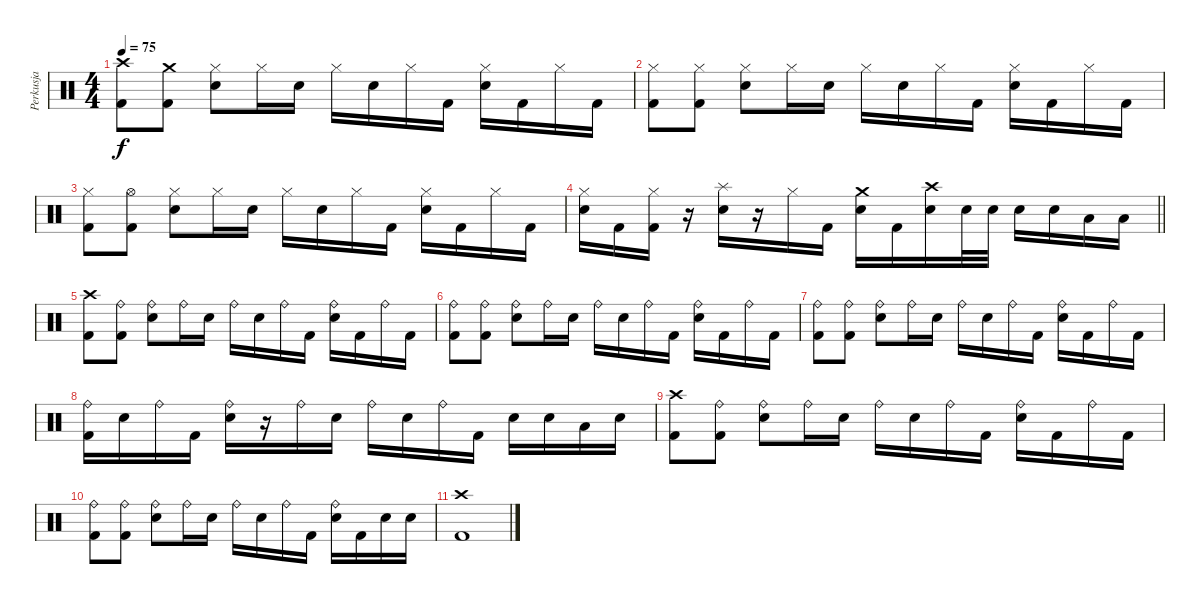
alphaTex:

\track ("Perkusja" "Perkusja") {instrument percussion}
\staff {score}
\articulation defaults
\ts (4 4)
\tempo 75
\clef neutral
\ks c
("Crash high (hit)" "Kick (hit) 2").8{dy f} ("Crash medium (hit)" "Kick (hit) 2").8 ("Hi-Hat (closed)" "Snare (hit) 2").8 "Hi-Hat (closed)".16 "Snare (hit) 2".16 "Hi-Hat (closed)".16 "Snare (hit) 2".16 "Hi-Hat (closed)".16 "Kick (hit) 2".16 ("Hi-Hat (closed)" "Snare (hit) 2").16 "Kick (hit) 2".16 "Hi-Hat (closed)".16 "Kick (hit) 2".16 |
("Hi-Hat (closed)" "Kick (hit) 2").8 ("Hi-Hat (closed)" "Kick (hit) 2").8 ("Hi-Hat (closed)" "Snare (hit) 2").8 "Hi-Hat (closed)".16 "Snare (hit) 2".16 "Hi-Hat (closed)".16 "Snare (hit) 2".16 "Hi-Hat (closed)".16 "Kick (hit) 2".16 ("Hi-Hat (closed)" "Snare (hit) 2").16 "Kick (hit) 2".16 "Hi-Hat (closed)".16 "Kick (hit) 2".16 |
("Hi-Hat (closed)" "Kick (hit) 2").8 ("Hi-Hat (open)" "Kick (hit) 2").8 ("Hi-Hat (closed)" "Snare (hit) 2").8 "Hi-Hat (closed)".16 "Snare (hit) 2".16 "Hi-Hat (closed)".16 "Snare (hit) 2".16 "Hi-Hat (closed)".16 "Kick (hit) 2".16 ("Hi-Hat (closed)" "Snare (hit) 2").16 "Kick (hit) 2".16 "Hi-Hat (closed)".16 "Kick (hit) 2".16 |
\barLineRight lightlight
("Hi-Hat (closed)" "Snare (hit) 2").16 "Kick (hit) 2".16 ("Hi-Hat (closed)" "Kick (hit) 2").16 r.16 ("Splash (hit)" "Snare (hit) 2").16 r.16 "Hi-Hat (closed)".16 "Kick (hit) 2".16 ("Crash medium (hit)" "Snare (hit) 2").16 "Kick (hit) 2".16 ("Crash high (hit)" "Snare (hit) 2").16 "Snare (hit) 2".32 "Snare (hit) 2".32 "Snare (hit) 2".16 "Snare (hit) 2".16 "Low Tom (hit)".16 "Low Tom (hit)".16 |
\section ("" "")
("Crash high (hit)" "Kick (hit) 2").8 ("Ride (bell)" "Kick (hit) 2").8 ("Ride (bell)" "Snare (hit) 2").8 "Ride (bell)".16 "Snare (hit) 2".16 "Ride (bell)".16 "Snare (hit) 2".16 "Ride (bell)".16 "Kick (hit) 2".16 ("Ride (bell)" "Snare (hit) 2").16 "Kick (hit) 2".16 "Ride (bell)".16 "Kick (hit) 2".16 |
("Ride (bell)" "Kick (hit) 2").8 ("Ride (bell)" "Kick (hit) 2").8 ("Ride (bell)" "Snare (hit) 2").8 "Ride (bell)".16 "Snare (hit) 2".16 "Ride (bell)".16 "Snare (hit) 2".16 "Ride (bell)".16 "Kick (hit) 2".16 ("Ride (bell)" "Snare (hit) 2").16 "Kick (hit) 2".16 "Ride (bell)".16 "Kick (hit) 2".16 |
("Ride (bell)" "Kick (hit) 2").8 ("Ride (bell)" "Kick (hit) 2").8 ("Ride (bell)" "Snare (hit) 2").8 "Ride (bell)".16 "Snare (hit) 2".16 "Ride (bell)".16 "Snare (hit) 2".16 "Ride (bell)".16 "Kick (hit) 2".16 ("Ride (bell)" "Snare (hit) 2").16 "Kick (hit) 2".16 "Ride (bell)".16 "Kick (hit) 2".16 |
("Ride (bell)" "Kick (hit) 2").16 "Snare (hit) 2".16 "Ride (bell)".16 "Kick (hit) 2".16 ("Ride (bell)" "Snare (hit) 2").16 r.16 "Ride (bell)".16 "Snare (hit) 2".16 "Ride (bell)".16 "Snare (hit) 2".16 "Ride (bell)".16 "Kick (hit) 2".16 "Snare (hit) 2".16 "Snare (hit) 2".16 "Low Tom (hit)".16 "Snare (hit) 2".16 |
("Crash high (hit)" "Kick (hit) 2").8 ("Ride (bell)" "Kick (hit) 2").8 ("Ride (bell)" "Snare (hit) 2").8 "Ride (bell)".16 "Snare (hit) 2".16 "Ride (bell)".16 "Snare (hit) 2".16 "Ride (bell)".16 "Kick (hit) 2".16 ("Ride (bell)" "Snare (hit) 2").16 "Kick (hit) 2".16 "Ride (bell)".16 "Kick (hit) 2".16 |
("Ride (bell)" "Kick (hit) 2").8 ("Ride (bell)" "Kick (hit) 2").8 ("Ride (bell)" "Snare (hit) 2").8 "Ride (bell)".16 "Snare (hit) 2".16 "Ride (bell)".16 "Snare (hit) 2".16 "Ride (bell)".16 "Kick (hit) 2".16 ("Ride (bell)" "Snare (hit) 2").16 "Kick (hit) 2".16 "Snare (hit) 2".16 "Snare (hit) 2".16 |
("Crash high (hit)" "Kick (hit) 2").1
